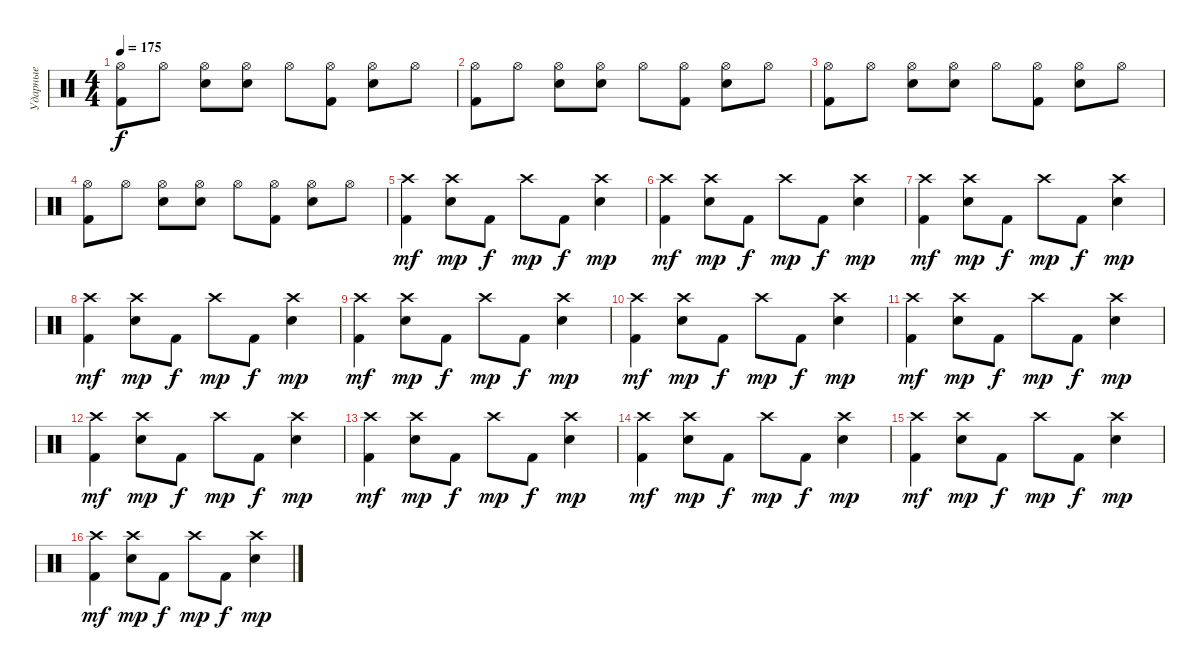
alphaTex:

\track ("Ударные" "Ударные") {instrument percussion}
\staff {score}
\articulation defaults
\ts (4 4)
\tempo 175
\clef neutral
\ks c
("Hi-Hat (open)" "Kick (hit) 2").8{dy f} "Hi-Hat (open)".8 ("Hi-Hat (open)" "Electric Snare (hit)").8 ("Hi-Hat (open)" "Electric Snare (hit)").8 "Hi-Hat (open)".8 ("Hi-Hat (open)" "Kick (hit) 2").8 ("Hi-Hat (open)" "Electric Snare (hit)").8 "Hi-Hat (open)".8 |
("Hi-Hat (open)" "Kick (hit) 2").8 "Hi-Hat (open)".8 ("Hi-Hat (open)" "Electric Snare (hit)").8 ("Hi-Hat (open)" "Electric Snare (hit)").8 "Hi-Hat (open)".8 ("Hi-Hat (open)" "Kick (hit) 2").8 ("Hi-Hat (open)" "Electric Snare (hit)").8 "Hi-Hat (open)".8 |
("Hi-Hat (open)" "Kick (hit) 2").8 "Hi-Hat (open)".8 ("Hi-Hat (open)" "Electric Snare (hit)").8 ("Hi-Hat (open)" "Electric Snare (hit)").8 "Hi-Hat (open)".8 ("Hi-Hat (open)" "Kick (hit) 2").8 ("Hi-Hat (open)" "Electric Snare (hit)").8 "Hi-Hat (open)".8 |
("Hi-Hat (open)" "Kick (hit) 2").8 "Hi-Hat (open)".8 ("Hi-Hat (open)" "Electric Snare (hit)").8 ("Hi-Hat (open)" "Electric Snare (hit)").8 "Hi-Hat (open)".8 ("Hi-Hat (open)" "Kick (hit) 2").8 ("Hi-Hat (open)" "Electric Snare (hit)").8 "Hi-Hat (open)".8 |
("Crash high (hit)" "Kick (hit) 2").4{dy mf} ("Crash high (hit)" "Electric Snare (hit)").8{dy mp} "Kick (hit) 2".8{dy f} "Crash high (hit)".8{dy mp} "Kick (hit) 2".8{dy f} ("Crash high (hit)" "Electric Snare (hit)").4{dy mp} |
("Crash high (hit)" "Kick (hit) 2").4{dy mf} ("Crash high (hit)" "Electric Snare (hit)").8{dy mp} "Kick (hit) 2".8{dy f} "Crash high (hit)".8{dy mp} "Kick (hit) 2".8{dy f} ("Crash high (hit)" "Electric Snare (hit)").4{dy mp} |
("Crash high (hit)" "Kick (hit) 2").4{dy mf} ("Crash high (hit)" "Electric Snare (hit)").8{dy mp} "Kick (hit) 2".8{dy f} "Crash high (hit)".8{dy mp} "Kick (hit) 2".8{dy f} ("Crash high (hit)" "Electric Snare (hit)").4{dy mp} |
("Crash high (hit)" "Kick (hit) 2").4{dy mf} ("Crash high (hit)" "Electric Snare (hit)").8{dy mp} "Kick (hit) 2".8{dy f} "Crash high (hit)".8{dy mp} "Kick (hit) 2".8{dy f} ("Crash high (hit)" "Electric Snare (hit)").4{dy mp} |
("Crash high (hit)" "Kick (hit) 2").4{dy mf} ("Crash high (hit)" "Electric Snare (hit)").8{dy mp} "Kick (hit) 2".8{dy f} "Crash high (hit)".8{dy mp} "Kick (hit) 2".8{dy f} ("Crash high (hit)" "Electric Snare (hit)").4{dy mp} |
("Crash high (hit)" "Kick (hit) 2").4{dy mf} ("Crash high (hit)" "Electric Snare (hit)").8{dy mp} "Kick (hit) 2".8{dy f} "Crash high (hit)".8{dy mp} "Kick (hit) 2".8{dy f} ("Crash high (hit)" "Electric Snare (hit)").4{dy mp} |
("Crash high (hit)" "Kick (hit) 2").4{dy mf} ("Crash high (hit)" "Electric Snare (hit)").8{dy mp} "Kick (hit) 2".8{dy f} "Crash high (hit)".8{dy mp} "Kick (hit) 2".8{dy f} ("Crash high (hit)" "Electric Snare (hit)").4{dy mp} |
("Crash high (hit)" "Kick (hit) 2").4{dy mf} ("Crash high (hit)" "Electric Snare (hit)").8{dy mp} "Kick (hit) 2".8{dy f} "Crash high (hit)".8{dy mp} "Kick (hit) 2".8{dy f} ("Crash high (hit)" "Electric Snare (hit)").4{dy mp} |
("Crash high (hit)" "Kick (hit) 2").4{dy mf} ("Crash high (hit)" "Electric Snare (hit)").8{dy mp} "Kick (hit) 2".8{dy f} "Crash high (hit)".8{dy mp} "Kick (hit) 2".8{dy f} ("Crash high (hit)" "Electric Snare (hit)").4{dy mp} |
("Crash high (hit)" "Kick (hit) 2").4{dy mf} ("Crash high (hit)" "Electric Snare (hit)").8{dy mp} "Kick (hit) 2".8{dy f} "Crash high (hit)".8{dy mp} "Kick (hit) 2".8{dy f} ("Crash high (hit)" "Electric Snare (hit)").4{dy mp} |
("Crash high (hit)" "Kick (hit) 2").4{dy mf} ("Crash high (hit)" "Electric Snare (hit)").8{dy mp} "Kick (hit) 2".8{dy f} "Crash high (hit)".8{dy mp} "Kick (hit) 2".8{dy f} ("Crash high (hit)" "Electric Snare (hit)").4{dy mp} |
("Crash high (hit)" "Kick (hit) 2").4{dy mf} ("Crash high (hit)" "Electric Snare (hit)").8{dy mp} "Kick (hit) 2".8{dy f} "Crash high (hit)".8{dy mp} "Kick (hit) 2".8{dy f} ("Crash high (hit)" "Electric Snare (hit)").4{dy mp}
